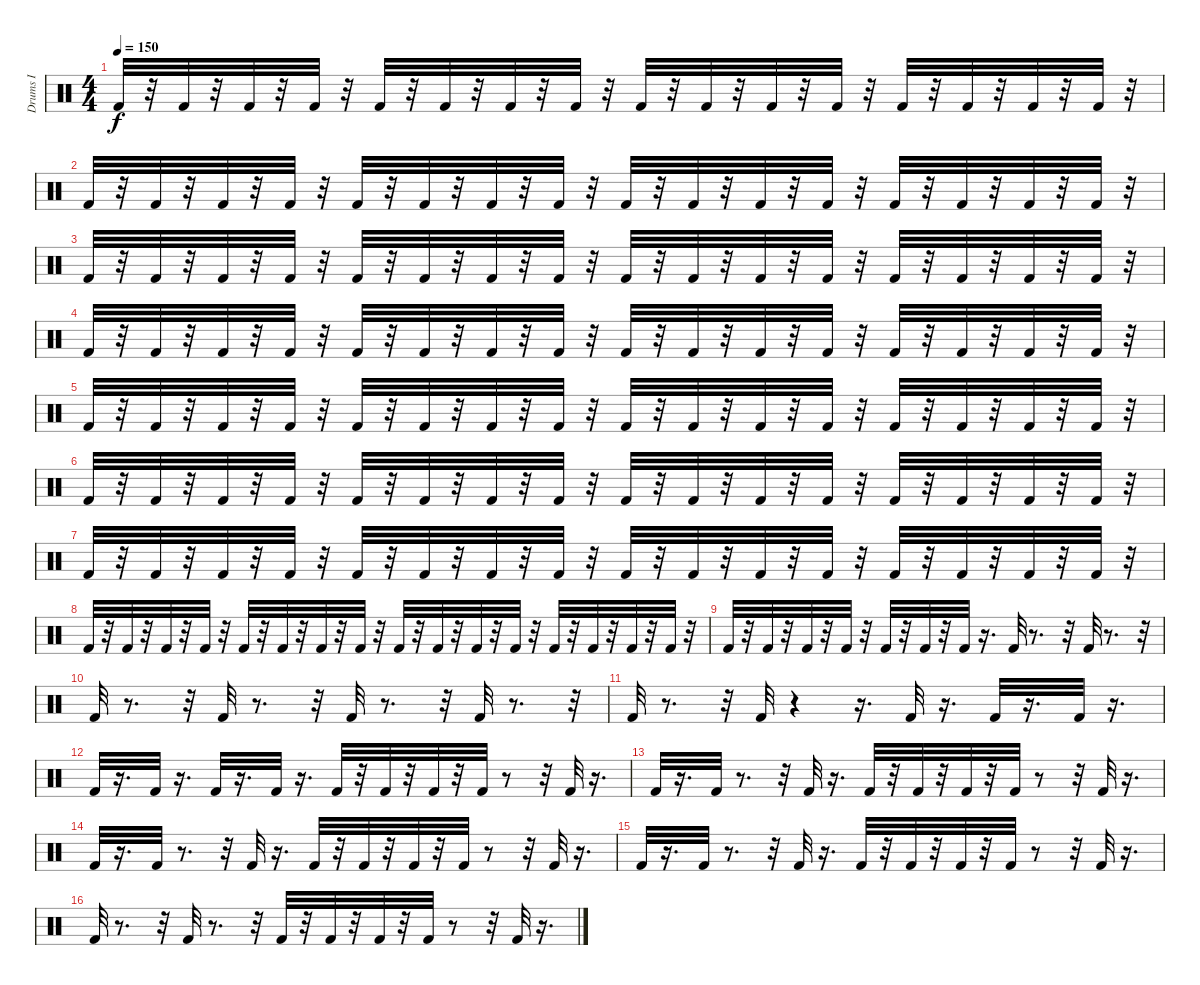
\track ("Drums I" "Drums I") {instrument percussion}
\staff {score}
\articulation defaults
\ts (4 4)
\tempo 150
\clef neutral
\ks c "Kick (hit) 2".32{dy f}
r.32 "Kick (hit) 2".32 r.32 "Kick (hit) 2".32 r.32 "Kick (hit) 2".32 r.32 "Kick (hit) 2".32 r.32 "Kick (hit) 2".32 r.32 "Kick (hit) 2".32 r.32 "Kick (hit) 2".32 r.32 "Kick (hit) 2".32 r.32 "Kick (hit) 2".32 r.32 "Kick (hit) 2".32 r.32 "Kick (hit) 2".32 r.32 "Kick (hit) 2".32 r.32 "Kick (hit) 2".32 r.32 "Kick (hit) 2".32 r.32 "Kick (hit) 2".32 r.32 |
"Kick (hit) 2".32 r.32 "Kick (hit) 2".32 r.32 "Kick (hit) 2".32 r.32 "Kick (hit) 2".32 r.32 "Kick (hit) 2".32 r.32 "Kick (hit) 2".32 r.32 "Kick (hit) 2".32 r.32 "Kick (hit) 2".32 r.32 "Kick (hit) 2".32 r.32 "Kick (hit) 2".32 r.32 "Kick (hit) 2".32 r.32 "Kick (hit) 2".32 r.32 "Kick (hit) 2".32 r.32 "Kick (hit) 2".32 r.32 "Kick (hit) 2".32 r.32 "Kick (hit) 2".32 r.32 |
"Kick (hit) 2".32 r.32 "Kick (hit) 2".32 r.32 "Kick (hit) 2".32 r.32 "Kick (hit) 2".32 r.32 "Kick (hit) 2".32 r.32 "Kick (hit) 2".32 r.32 "Kick (hit) 2".32 r.32 "Kick (hit) 2".32 r.32 "Kick (hit) 2".32 r.32 "Kick (hit) 2".32 r.32 "Kick (hit) 2".32 r.32 "Kick (hit) 2".32 r.32 "Kick (hit) 2".32 r.32 "Kick (hit) 2".32 r.32 "Kick (hit) 2".32 r.32 "Kick (hit) 2".32 r.32 |
"Kick (hit) 2".32 r.32 "Kick (hit) 2".32 r.32 "Kick (hit) 2".32 r.32 "Kick (hit) 2".32 r.32 "Kick (hit) 2".32 r.32 "Kick (hit) 2".32 r.32 "Kick (hit) 2".32 r.32 "Kick (hit) 2".32 r.32 "Kick (hit) 2".32 r.32 "Kick (hit) 2".32 r.32 "Kick (hit) 2".32 r.32 "Kick (hit) 2".32 r.32 "Kick (hit) 2".32 r.32 "Kick (hit) 2".32 r.32 "Kick (hit) 2".32 r.32 "Kick (hit) 2".32 r.32 |
"Kick (hit) 2".32 r.32 "Kick (hit) 2".32 r.32 "Kick (hit) 2".32 r.32 "Kick (hit) 2".32 r.32 "Kick (hit) 2".32 r.32 "Kick (hit) 2".32 r.32 "Kick (hit) 2".32 r.32 "Kick (hit) 2".32 r.32 "Kick (hit) 2".32 r.32 "Kick (hit) 2".32 r.32 "Kick (hit) 2".32 r.32 "Kick (hit) 2".32 r.32 "Kick (hit) 2".32 r.32 "Kick (hit) 2".32 r.32 "Kick (hit) 2".32 r.32 "Kick (hit) 2".32 r.32 |
"Kick (hit) 2".32 r.32 "Kick (hit) 2".32 r.32 "Kick (hit) 2".32 r.32 "Kick (hit) 2".32 r.32 "Kick (hit) 2".32 r.32 "Kick (hit) 2".32 r.32 "Kick (hit) 2".32 r.32 "Kick (hit) 2".32 r.32 "Kick (hit) 2".32 r.32 "Kick (hit) 2".32 r.32 "Kick (hit) 2".32 r.32 "Kick (hit) 2".32 r.32 "Kick (hit) 2".32 r.32 "Kick (hit) 2".32 r.32 "Kick (hit) 2".32 r.32 "Kick (hit) 2".32 r.32 |
"Kick (hit) 2".32 r.32 "Kick (hit) 2".32 r.32 "Kick (hit) 2".32 r.32 "Kick (hit) 2".32 r.32 "Kick (hit) 2".32 r.32 "Kick (hit) 2".32 r.32 "Kick (hit) 2".32 r.32 "Kick (hit) 2".32 r.32 "Kick (hit) 2".32 r.32 "Kick (hit) 2".32 r.32 "Kick (hit) 2".32 r.32 "Kick (hit) 2".32 r.32 "Kick (hit) 2".32 r.32 "Kick (hit) 2".32 r.32 "Kick (hit) 2".32 r.32 "Kick (hit) 2".32 r.32 |
"Kick (hit) 2".32 r.32 "Kick (hit) 2".32 r.32 "Kick (hit) 2".32 r.32 "Kick (hit) 2".32 r.32 "Kick (hit) 2".32 r.32 "Kick (hit) 2".32 r.32 "Kick (hit) 2".32 r.32 "Kick (hit) 2".32 r.32 "Kick (hit) 2".32 r.32 "Kick (hit) 2".32 r.32 "Kick (hit) 2".32 r.32 "Kick (hit) 2".32 r.32 "Kick (hit) 2".32 r.32 "Kick (hit) 2".32 r.32 "Kick (hit) 2".32 r.32 "Kick (hit) 2".32 r.32 |
"Kick (hit) 2".32 r.32 "Kick (hit) 2".32 r.32 "Kick (hit) 2".32 r.32 "Kick (hit) 2".32 r.32 "Kick (hit) 2".32 r.32 "Kick (hit) 2".32 r.32 "Kick (hit) 2".32 r.16{d} "Kick (hit) 2".32 r.8{d} r.32 "Kick (hit) 2".32 r.8{d} r.32 |
"Kick (hit) 2".32 r.8{d} r.32 "Kick (hit) 2".32 r.8{d} r.32 "Kick (hit) 2".32 r.8{d} r.32 "Kick (hit) 2".32 r.8{d} r.32 |
"Kick (hit) 2".32 r.8{d} r.32 "Kick (hit) 2".32 r.4 r.16{d} "Kick (hit) 2".32 r.16{d} "Kick (hit) 2".32 r.16{d} "Kick (hit) 2".32 r.16{d} |
"Kick (hit) 2".32 r.16{d} "Kick (hit) 2".32 r.16{d} "Kick (hit) 2".32 r.16{d} "Kick (hit) 2".32 r.16{d} "Kick (hit) 2".32 r.32 "Kick (hit) 2".32 r.32 "Kick (hit) 2".32 r.32 "Kick (hit) 2".32 r.8 r.32 "Kick (hit) 2".32 r.16{d} |
"Kick (hit) 2".32 r.16{d} "Kick (hit) 2".32 r.8{d} r.32 "Kick (hit) 2".32 r.16{d} "Kick (hit) 2".32 r.32 "Kick (hit) 2".32 r.32 "Kick (hit) 2".32 r.32 "Kick (hit) 2".32 r.8 r.32 "Kick (hit) 2".32 r.16{d} |
"Kick (hit) 2".32 r.16{d} "Kick (hit) 2".32 r.8{d} r.32 "Kick (hit) 2".32 r.16{d} "Kick (hit) 2".32 r.32 "Kick (hit) 2".32 r.32 "Kick (hit) 2".32 r.32 "Kick (hit) 2".32 r.8 r.32 "Kick (hit) 2".32 r.16{d} |
"Kick (hit) 2".32 r.16{d} "Kick (hit) 2".32 r.8{d} r.32 "Kick (hit) 2".32 r.16{d} "Kick (hit) 2".32 r.32 "Kick (hit) 2".32 r.32 "Kick (hit) 2".32 r.32 "Kick (hit) 2".32 r.8 r.32 "Kick (hit) 2".32 r.16{d} |
"Kick (hit) 2".32 r.8{d} r.32 "Kick (hit) 2".32 r.8{d} r.32 "Kick (hit) 2".32 r.32 "Kick (hit) 2".32 r.32 "Kick (hit) 2".32 r.32 "Kick (hit) 2".32 r.8 r.32 "Kick (hit) 2".32 r.16{d}
